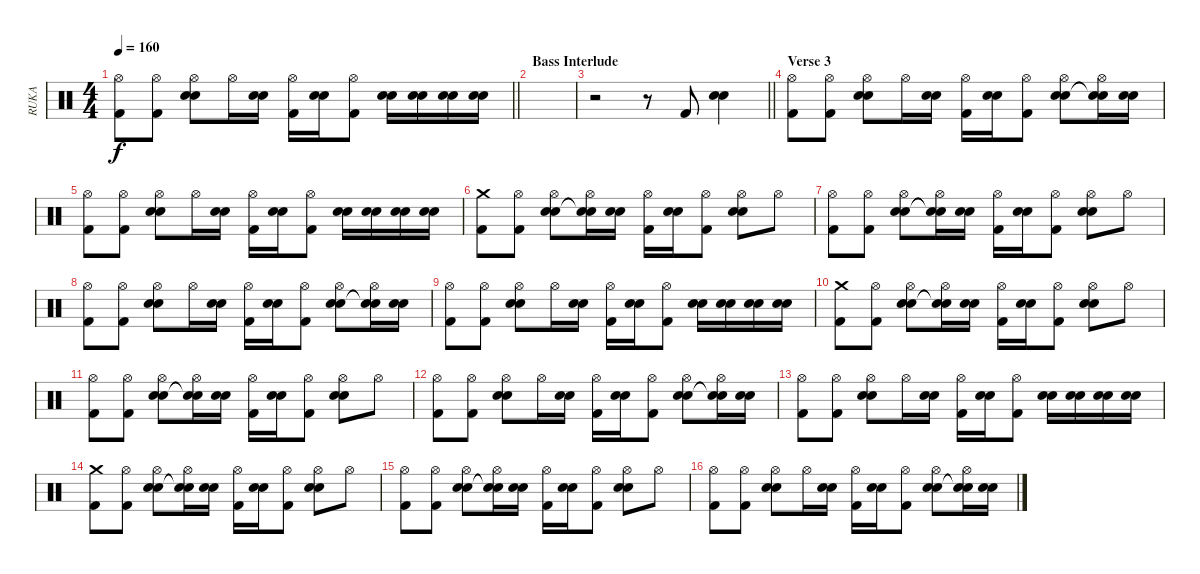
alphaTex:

\track ("RUKA" "RUKA") {instrument percussion}
\staff {score}
\articulation defaults
\ts (4 4)
\tempo 160
\clef neutral
\barLineRight lightlight
\ks c
("Hi-Hat (open)" "Kick (hit) 2").8{dy f} ("Hi-Hat (open)" "Kick (hit) 2").8 ("Hi-Hat (open)" "Snare (hit) 2" "Electric Snare (hit)").8 "Hi-Hat (open)".16 ("Snare (hit) 2" "Electric Snare (hit)").16 ("Hi-Hat (open)" "Kick (hit) 2").16 ("Snare (hit) 2" "Electric Snare (hit)").16 ("Hi-Hat (open)" "Kick (hit) 2").8 ("Snare (hit) 2" "Electric Snare (hit)").16 ("Snare (hit) 2" "Electric Snare (hit)").16 ("Snare (hit) 2" "Electric Snare (hit)").16 ("Snare (hit) 2" "Electric Snare (hit)").16 |
\section ("" "Bass Interlude")
|
\barLineRight lightlight
r.2 r.8 "Kick (hit) 2".8 ("Snare (hit) 2" "Electric Snare (hit)").4 |
\section ("" "Verse 3")
("Hi-Hat (open)" "Kick (hit) 2").8 ("Hi-Hat (open)" "Kick (hit) 2").8 ("Hi-Hat (open)" "Snare (hit) 2" "Electric Snare (hit)").8 "Hi-Hat (open)".16 ("Snare (hit) 2" "Electric Snare (hit)").16 ("Hi-Hat (open)" "Kick (hit) 2").16 ("Snare (hit) 2" "Electric Snare (hit)").16 ("Hi-Hat (open)" "Kick (hit) 2").8 ("Hi-Hat (open)" "Snare (hit) 2" "Electric Snare (hit)").8 ("Hi-Hat (open)" "Snare (hit)"{t} "Snare (hit)"{t}).16 ("Snare (hit) 2" "Electric Snare (hit)").16 |
("Hi-Hat (open)" "Kick (hit) 2").8 ("Hi-Hat (open)" "Kick (hit) 2").8 ("Hi-Hat (open)" "Snare (hit) 2" "Electric Snare (hit)").8 "Hi-Hat (open)".16 ("Snare (hit) 2" "Electric Snare (hit)").16 ("Hi-Hat (open)" "Kick (hit) 2").16 ("Snare (hit) 2" "Electric Snare (hit)").16 ("Hi-Hat (open)" "Kick (hit) 2").8 ("Snare (hit) 2" "Electric Snare (hit)").16 ("Snare (hit) 2" "Electric Snare (hit)").16 ("Snare (hit) 2" "Electric Snare (hit)").16 ("Snare (hit) 2" "Electric Snare (hit)").16 |
("Crash medium (hit)" "Kick (hit) 2").8 ("Hi-Hat (open)" "Kick (hit) 2").8 ("Hi-Hat (open)" "Snare (hit) 2" "Electric Snare (hit)").8 ("Hi-Hat (open)" "Snare (hit)"{t} "Snare (hit)"{t}).16 ("Snare (hit) 2" "Electric Snare (hit)").16 ("Hi-Hat (open)" "Kick (hit) 2").16 ("Snare (hit) 2" "Electric Snare (hit)").16 ("Hi-Hat (open)" "Kick (hit) 2").8 ("Hi-Hat (open)" "Snare (hit) 2" "Electric Snare (hit)").8 "Hi-Hat (open)".8 |
("Hi-Hat (open)" "Kick (hit) 2").8 ("Hi-Hat (open)" "Kick (hit) 2").8 ("Hi-Hat (open)" "Snare (hit) 2" "Electric Snare (hit)").8 ("Hi-Hat (open)" "Snare (hit)"{t} "Snare (hit)"{t}).16 ("Snare (hit) 2" "Electric Snare (hit)").16 ("Hi-Hat (open)" "Kick (hit) 2").16 ("Snare (hit) 2" "Electric Snare (hit)").16 ("Hi-Hat (open)" "Kick (hit) 2").8 ("Hi-Hat (open)" "Snare (hit) 2" "Electric Snare (hit)").8 "Hi-Hat (open)".8 |
("Hi-Hat (open)" "Kick (hit) 2").8 ("Hi-Hat (open)" "Kick (hit) 2").8 ("Hi-Hat (open)" "Snare (hit) 2" "Electric Snare (hit)").8 "Hi-Hat (open)".16 ("Snare (hit) 2" "Electric Snare (hit)").16 ("Hi-Hat (open)" "Kick (hit) 2").16 ("Snare (hit) 2" "Electric Snare (hit)").16 ("Hi-Hat (open)" "Kick (hit) 2").8 ("Hi-Hat (open)" "Snare (hit) 2" "Electric Snare (hit)").8 ("Hi-Hat (open)" "Snare (hit)"{t} "Snare (hit)"{t}).16 ("Snare (hit) 2" "Electric Snare (hit)").16 |
("Hi-Hat (open)" "Kick (hit) 2").8 ("Hi-Hat (open)" "Kick (hit) 2").8 ("Hi-Hat (open)" "Snare (hit) 2" "Electric Snare (hit)").8 "Hi-Hat (open)".16 ("Snare (hit) 2" "Electric Snare (hit)").16 ("Hi-Hat (open)" "Kick (hit) 2").16 ("Snare (hit) 2" "Electric Snare (hit)").16 ("Hi-Hat (open)" "Kick (hit) 2").8 ("Snare (hit) 2" "Electric Snare (hit)").16 ("Snare (hit) 2" "Electric Snare (hit)").16 ("Snare (hit) 2" "Electric Snare (hit)").16 ("Snare (hit) 2" "Electric Snare (hit)").16 |
("Crash medium (hit)" "Kick (hit) 2").8 ("Hi-Hat (open)" "Kick (hit) 2").8 ("Hi-Hat (open)" "Snare (hit) 2" "Electric Snare (hit)").8 ("Hi-Hat (open)" "Snare (hit)"{t} "Snare (hit)"{t}).16 ("Snare (hit) 2" "Electric Snare (hit)").16 ("Hi-Hat (open)" "Kick (hit) 2").16 ("Snare (hit) 2" "Electric Snare (hit)").16 ("Hi-Hat (open)" "Kick (hit) 2").8 ("Hi-Hat (open)" "Snare (hit) 2" "Electric Snare (hit)").8 "Hi-Hat (open)".8 |
("Hi-Hat (open)" "Kick (hit) 2").8 ("Hi-Hat (open)" "Kick (hit) 2").8 ("Hi-Hat (open)" "Snare (hit) 2" "Electric Snare (hit)").8 ("Hi-Hat (open)" "Snare (hit)"{t} "Snare (hit)"{t}).16 ("Snare (hit) 2" "Electric Snare (hit)").16 ("Hi-Hat (open)" "Kick (hit) 2").16 ("Snare (hit) 2" "Electric Snare (hit)").16 ("Hi-Hat (open)" "Kick (hit) 2").8 ("Hi-Hat (open)" "Snare (hit) 2" "Electric Snare (hit)").8 "Hi-Hat (open)".8 |
("Hi-Hat (open)" "Kick (hit) 2").8 ("Hi-Hat (open)" "Kick (hit) 2").8 ("Hi-Hat (open)" "Snare (hit) 2" "Electric Snare (hit)").8 "Hi-Hat (open)".16 ("Snare (hit) 2" "Electric Snare (hit)").16 ("Hi-Hat (open)" "Kick (hit) 2").16 ("Snare (hit) 2" "Electric Snare (hit)").16 ("Hi-Hat (open)" "Kick (hit) 2").8 ("Hi-Hat (open)" "Snare (hit) 2" "Electric Snare (hit)").8 ("Hi-Hat (open)" "Snare (hit)"{t} "Snare (hit)"{t}).16 ("Snare (hit) 2" "Electric Snare (hit)").16 |
("Hi-Hat (open)" "Kick (hit) 2").8 ("Hi-Hat (open)" "Kick (hit) 2").8 ("Hi-Hat (open)" "Snare (hit) 2" "Electric Snare (hit)").8 "Hi-Hat (open)".16 ("Snare (hit) 2" "Electric Snare (hit)").16 ("Hi-Hat (open)" "Kick (hit) 2").16 ("Snare (hit) 2" "Electric Snare (hit)").16 ("Hi-Hat (open)" "Kick (hit) 2").8 ("Snare (hit) 2" "Electric Snare (hit)").16 ("Snare (hit) 2" "Electric Snare (hit)").16 ("Snare (hit) 2" "Electric Snare (hit)").16 ("Snare (hit) 2" "Electric Snare (hit)").16 |
("Crash medium (hit)" "Kick (hit) 2").8 ("Hi-Hat (open)" "Kick (hit) 2").8 ("Hi-Hat (open)" "Snare (hit) 2" "Electric Snare (hit)").8 ("Hi-Hat (open)" "Snare (hit)"{t} "Snare (hit)"{t}).16 ("Snare (hit) 2" "Electric Snare (hit)").16 ("Hi-Hat (open)" "Kick (hit) 2").16 ("Snare (hit) 2" "Electric Snare (hit)").16 ("Hi-Hat (open)" "Kick (hit) 2").8 ("Hi-Hat (open)" "Snare (hit) 2" "Electric Snare (hit)").8 "Hi-Hat (open)".8 |
("Hi-Hat (open)" "Kick (hit) 2").8 ("Hi-Hat (open)" "Kick (hit) 2").8 ("Hi-Hat (open)" "Snare (hit) 2" "Electric Snare (hit)").8 ("Hi-Hat (open)" "Snare (hit)"{t} "Snare (hit)"{t}).16 ("Snare (hit) 2" "Electric Snare (hit)").16 ("Hi-Hat (open)" "Kick (hit) 2").16 ("Snare (hit) 2" "Electric Snare (hit)").16 ("Hi-Hat (open)" "Kick (hit) 2").8 ("Hi-Hat (open)" "Snare (hit) 2" "Electric Snare (hit)").8 "Hi-Hat (open)".8 |
("Hi-Hat (open)" "Kick (hit) 2").8 ("Hi-Hat (open)" "Kick (hit) 2").8 ("Hi-Hat (open)" "Snare (hit) 2" "Electric Snare (hit)").8 "Hi-Hat (open)".16 ("Snare (hit) 2" "Electric Snare (hit)").16 ("Hi-Hat (open)" "Kick (hit) 2").16 ("Snare (hit) 2" "Electric Snare (hit)").16 ("Hi-Hat (open)" "Kick (hit) 2").8 ("Hi-Hat (open)" "Snare (hit) 2" "Electric Snare (hit)").8 ("Hi-Hat (open)" "Snare (hit)"{t} "Snare (hit)"{t}).16 ("Snare (hit) 2" "Electric Snare (hit)").16
